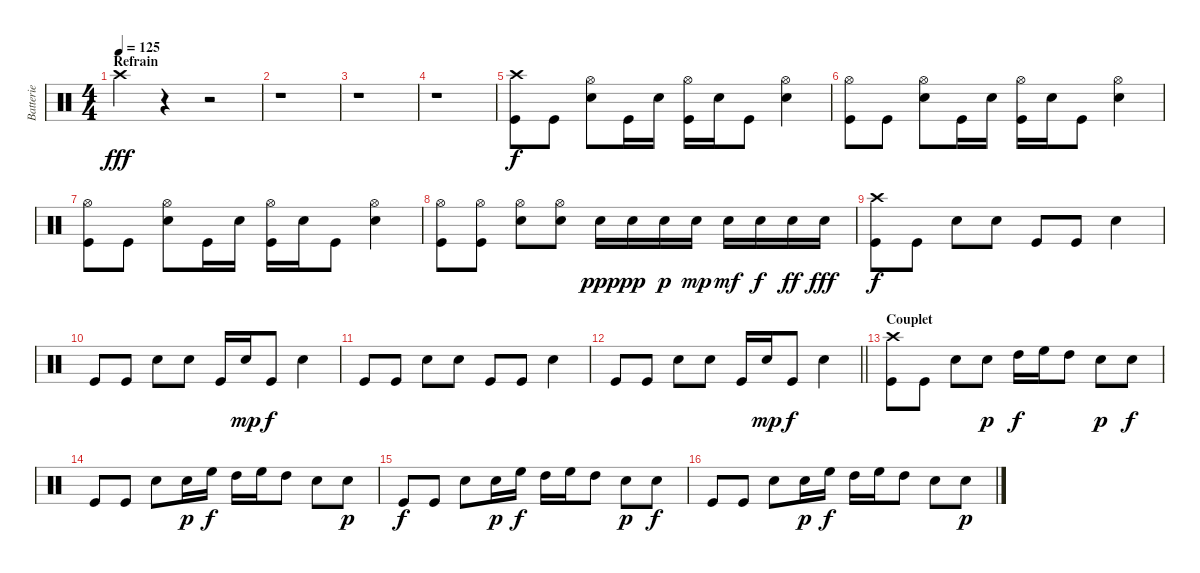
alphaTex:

\track ("Batterie" "Batterie") {instrument percussion}
\staff {score}
\articulation defaults
\ts (4 4)
\section ("" "Refrain")
\tempo 125
\clef neutral
\ks c "Crash high (hit)".4{dy fff}
r.4 r.2 |
r.1 |
r.1 |
r.1 |
("Crash high (hit)" "Kick (hit)").8{dy f} "Kick (hit)".8 ("Snare (hit) 2" "Hi-Hat (open)").8 "Kick (hit)".16 "Snare (hit) 2".16 ("Kick (hit)" "Hi-Hat (open)").16 "Snare (hit) 2".16 "Kick (hit)".8 ("Snare (hit) 2" "Hi-Hat (open)").4 |
("Hi-Hat (open)" "Kick (hit)").8 "Kick (hit)".8 ("Snare (hit) 2" "Hi-Hat (open)").8 "Kick (hit)".16 "Snare (hit) 2".16 ("Kick (hit)" "Hi-Hat (open)").16 "Snare (hit) 2".16 "Kick (hit)".8 ("Snare (hit) 2" "Hi-Hat (open)").4 |
("Hi-Hat (open)" "Kick (hit)").8 "Kick (hit)".8 ("Snare (hit) 2" "Hi-Hat (open)").8 "Kick (hit)".16 "Snare (hit) 2".16 ("Kick (hit)" "Hi-Hat (open)").16 "Snare (hit) 2".16 "Kick (hit)".8 ("Snare (hit) 2" "Hi-Hat (open)").4 |
("Hi-Hat (open)" "Kick (hit)").8 ("Kick (hit)" "Hi-Hat (open)").8 ("Snare (hit) 2" "Hi-Hat (open)").8 ("Hi-Hat (open)" "Snare (hit) 2").8 "Snare (hit) 2".16{dy ppp} "Snare (hit) 2".16{dy pp} "Snare (hit) 2".16{dy p} "Snare (hit) 2".16{dy mp} "Snare (hit) 2".16{dy mf} "Snare (hit) 2".16{dy f} "Snare (hit) 2".16{dy ff} "Snare (hit) 2".16{dy fff} |
("Kick (hit)" "Crash high (hit)").8{dy f} "Kick (hit)".8 "Snare (hit) 2".8 "Snare (hit) 2".8 "Kick (hit)".8 "Kick (hit)".8 "Snare (hit) 2".4 |
"Kick (hit)".8 "Kick (hit)".8 "Snare (hit) 2".8 "Snare (hit) 2".8 "Kick (hit)".16 "Snare (hit) 2".16{dy mp} "Kick (hit)".8{dy f} "Snare (hit) 2".4 |
"Kick (hit)".8 "Kick (hit)".8 "Snare (hit) 2".8 "Snare (hit) 2".8 "Kick (hit)".8 "Kick (hit)".8 "Snare (hit) 2".4 |
\barLineRight lightlight "Kick (hit)".8 "Kick (hit)".8 "Snare (hit) 2".8 "Snare (hit) 2".8 "Kick (hit)".16 "Snare (hit) 2".16{dy mp} "Kick (hit)".8{dy f} "Snare (hit) 2".4
|
\section ("" "Couplet")
("Kick (hit)" "Crash high (hit)").8 "Kick (hit)".8 "Snare (hit) 2".8 "Snare (hit) 2".8{dy p} "High Tom (hit)".16{dy f} "High Floor Tom (hit)".16 "High Tom (hit)".8 "Snare (hit) 2".8{dy p} "Snare (hit) 2".8{dy f} |
"Kick (hit)".8 "Kick (hit)".8 "Snare (hit) 2".8 "Snare (hit) 2".16{dy p} "High Floor Tom (hit)".16{dy f} "High Tom (hit)".16 "High Floor Tom (hit)".16 "High Tom (hit)".8 "Snare (hit) 2".8 "Snare (hit) 2".8{dy p} |
"Kick (hit)".8{dy f} "Kick (hit)".8 "Snare (hit) 2".8 "Snare (hit) 2".16{dy p} "High Floor Tom (hit)".16{dy f} "High Tom (hit)".16 "High Floor Tom (hit)".16 "High Tom (hit)".8 "Snare (hit) 2".8{dy p} "Snare (hit) 2".8{dy f} |
"Kick (hit)".8 "Kick (hit)".8 "Snare (hit) 2".8 "Snare (hit) 2".16{dy p} "High Floor Tom (hit)".16{dy f} "High Tom (hit)".16 "High Floor Tom (hit)".16 "High Tom (hit)".8 "Snare (hit) 2".8 "Snare (hit) 2".8{dy p}
